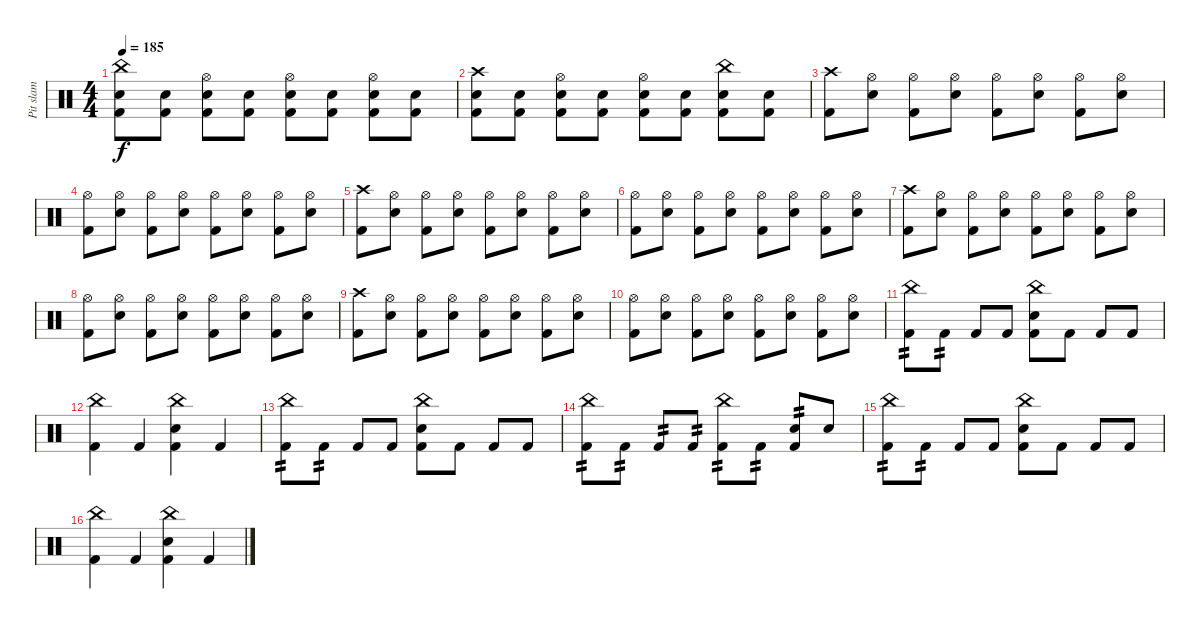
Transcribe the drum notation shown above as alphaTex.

\track ("Pit slam" "Pit slam") {instrument percussion}
\staff {score}
\articulation defaults
\ts (4 4)
\tempo 185
\clef neutral
\ks c
("China (hit)" "Electric Snare (hit)" "Kick (hit) 2").8{dy f} ("Electric Snare (hit)" "Kick (hit) 2").8 ("Hi-Hat (open)" "Electric Snare (hit)" "Kick (hit) 2").8 ("Electric Snare (hit)" "Kick (hit) 2").8 ("Hi-Hat (open)" "Electric Snare (hit)" "Kick (hit) 2").8 ("Electric Snare (hit)" "Kick (hit) 2").8 ("Hi-Hat (open)" "Electric Snare (hit)" "Kick (hit) 2").8 ("Electric Snare (hit)" "Kick (hit) 2").8 |
("Crash high (hit)" "Electric Snare (hit)" "Kick (hit) 2").8 ("Electric Snare (hit)" "Kick (hit) 2").8 ("Hi-Hat (open)" "Electric Snare (hit)" "Kick (hit) 2").8 ("Electric Snare (hit)" "Kick (hit) 2").8 ("Hi-Hat (open)" "Electric Snare (hit)" "Kick (hit) 2").8 ("Electric Snare (hit)" "Kick (hit) 2").8 ("China (hit)" "Electric Snare (hit)" "Kick (hit) 2").8 ("Electric Snare (hit)" "Kick (hit) 2").8 |
("Crash high (hit)" "Kick (hit) 2").8 ("Hi-Hat (open)" "Electric Snare (hit)").8 ("Hi-Hat (open)" "Kick (hit) 2").8 ("Hi-Hat (open)" "Electric Snare (hit)").8 ("Hi-Hat (open)" "Kick (hit) 2").8 ("Hi-Hat (open)" "Electric Snare (hit)").8 ("Hi-Hat (open)" "Kick (hit) 2").8 ("Hi-Hat (open)" "Electric Snare (hit)").8 |
("Hi-Hat (open)" "Kick (hit) 2").8 ("Hi-Hat (open)" "Electric Snare (hit)").8 ("Hi-Hat (open)" "Kick (hit) 2").8 ("Hi-Hat (open)" "Electric Snare (hit)").8 ("Hi-Hat (open)" "Kick (hit) 2").8 ("Hi-Hat (open)" "Electric Snare (hit)").8 ("Hi-Hat (open)" "Kick (hit) 2").8 ("Hi-Hat (open)" "Electric Snare (hit)").8 |
("Crash high (hit)" "Kick (hit) 2").8 ("Hi-Hat (open)" "Electric Snare (hit)").8 ("Hi-Hat (open)" "Kick (hit) 2").8 ("Hi-Hat (open)" "Electric Snare (hit)").8 ("Hi-Hat (open)" "Kick (hit) 2").8 ("Hi-Hat (open)" "Electric Snare (hit)").8 ("Hi-Hat (open)" "Kick (hit) 2").8 ("Hi-Hat (open)" "Electric Snare (hit)").8 |
("Hi-Hat (open)" "Kick (hit) 2").8 ("Hi-Hat (open)" "Electric Snare (hit)").8 ("Hi-Hat (open)" "Kick (hit) 2").8 ("Hi-Hat (open)" "Electric Snare (hit)").8 ("Hi-Hat (open)" "Kick (hit) 2").8 ("Hi-Hat (open)" "Electric Snare (hit)").8 ("Hi-Hat (open)" "Kick (hit) 2").8 ("Hi-Hat (open)" "Electric Snare (hit)").8 |
("Crash high (hit)" "Kick (hit) 2").8 ("Hi-Hat (open)" "Electric Snare (hit)").8 ("Hi-Hat (open)" "Kick (hit) 2").8 ("Hi-Hat (open)" "Electric Snare (hit)").8 ("Hi-Hat (open)" "Kick (hit) 2").8 ("Hi-Hat (open)" "Electric Snare (hit)").8 ("Hi-Hat (open)" "Kick (hit) 2").8 ("Hi-Hat (open)" "Electric Snare (hit)").8 |
("Hi-Hat (open)" "Kick (hit) 2").8 ("Hi-Hat (open)" "Electric Snare (hit)").8 ("Hi-Hat (open)" "Kick (hit) 2").8 ("Hi-Hat (open)" "Electric Snare (hit)").8 ("Hi-Hat (open)" "Kick (hit) 2").8 ("Hi-Hat (open)" "Electric Snare (hit)").8 ("Hi-Hat (open)" "Kick (hit) 2").8 ("Hi-Hat (open)" "Electric Snare (hit)").8 |
("Crash high (hit)" "Kick (hit) 2").8 ("Hi-Hat (open)" "Electric Snare (hit)").8 ("Hi-Hat (open)" "Kick (hit) 2").8 ("Hi-Hat (open)" "Electric Snare (hit)").8 ("Hi-Hat (open)" "Kick (hit) 2").8 ("Hi-Hat (open)" "Electric Snare (hit)").8 ("Hi-Hat (open)" "Kick (hit) 2").8 ("Hi-Hat (open)" "Electric Snare (hit)").8 |
("Hi-Hat (open)" "Kick (hit) 2").8 ("Hi-Hat (open)" "Electric Snare (hit)").8 ("Hi-Hat (open)" "Kick (hit) 2").8 ("Hi-Hat (open)" "Electric Snare (hit)").8 ("Hi-Hat (open)" "Kick (hit) 2").8 ("Hi-Hat (open)" "Electric Snare (hit)").8 ("Hi-Hat (open)" "Kick (hit) 2").8 ("Hi-Hat (open)" "Electric Snare (hit)").8 |
("China (hit)" "Kick (hit) 2").8{tp 2} "Kick (hit) 2".8{tp 2} "Kick (hit) 2".8 "Kick (hit) 2".8 ("China (hit)" "Electric Snare (hit)" "Kick (hit) 2").8 "Kick (hit) 2".8 "Kick (hit) 2".8 "Kick (hit) 2".8 |
("China (hit)" "Kick (hit) 2").4 "Kick (hit) 2".4 ("China (hit)" "Electric Snare (hit)" "Kick (hit) 2").4 "Kick (hit) 2".4 |
("China (hit)" "Kick (hit) 2").8{tp 2} "Kick (hit) 2".8{tp 2} "Kick (hit) 2".8 "Kick (hit) 2".8 ("China (hit)" "Electric Snare (hit)" "Kick (hit) 2").8 "Kick (hit) 2".8 "Kick (hit) 2".8 "Kick (hit) 2".8 |
("China (hit)" "Kick (hit) 2").8{tp 2} "Kick (hit) 2".8{tp 2} "Kick (hit) 2".8{tp 2} "Kick (hit) 2".8{tp 2} ("China (hit)" "Kick (hit) 2").8{tp 2} "Kick (hit) 2".8{tp 2} ("Electric Snare (hit)" "Kick (hit) 2").8{tp 2} "Electric Snare (hit)".8 |
("China (hit)" "Kick (hit) 2").8{tp 2} "Kick (hit) 2".8{tp 2} "Kick (hit) 2".8 "Kick (hit) 2".8 ("China (hit)" "Electric Snare (hit)" "Kick (hit) 2").8 "Kick (hit) 2".8 "Kick (hit) 2".8 "Kick (hit) 2".8 |
("China (hit)" "Kick (hit) 2").4 "Kick (hit) 2".4 ("China (hit)" "Electric Snare (hit)" "Kick (hit) 2").4 "Kick (hit) 2".4
